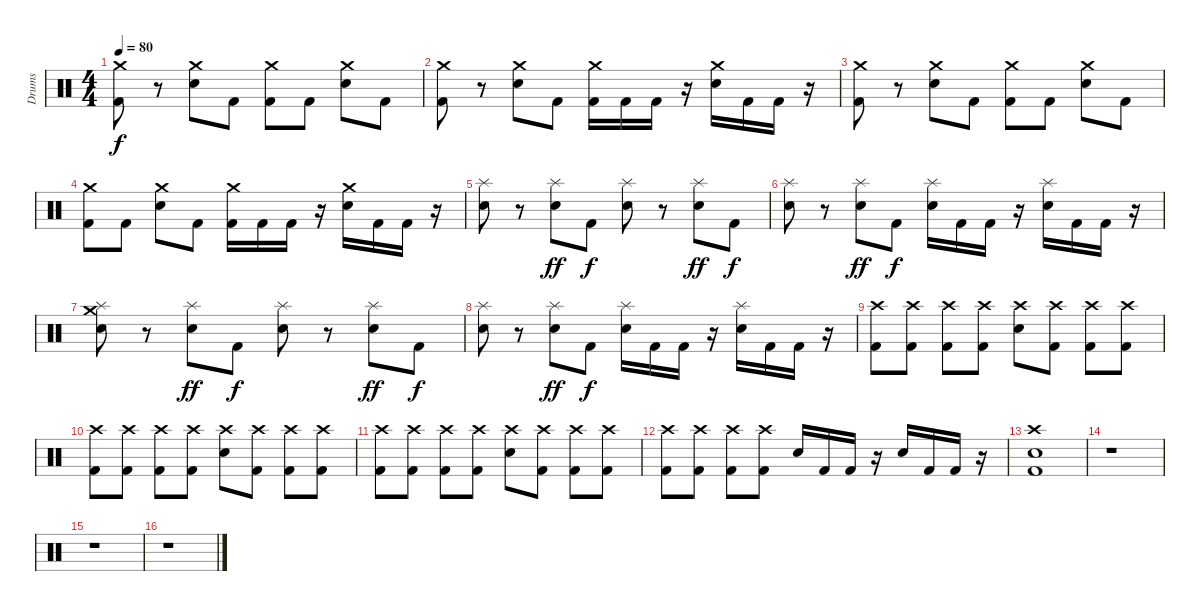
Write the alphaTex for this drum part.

\track ("Drums" "Drums") {instrument percussion}
\staff {score}
\articulation defaults
\ts (4 4)
\tempo 80
\clef neutral
\ks c
("Crash medium (hit)" "Kick (hit) 2").8{dy f} r.8 ("Crash medium (hit)" "Snare (hit) 2").8 "Kick (hit) 2".8 ("Crash medium (hit)" "Kick (hit) 2").8 "Kick (hit) 2".8 ("Crash medium (hit)" "Snare (hit) 2").8 "Kick (hit) 2".8 |
("Crash medium (hit)" "Kick (hit) 2").8 r.8 ("Crash medium (hit)" "Snare (hit) 2").8 "Kick (hit) 2".8 ("Crash medium (hit)" "Kick (hit) 2").16 "Kick (hit) 2".16 "Kick (hit) 2".16 r.16 ("Crash medium (hit)" "Snare (hit) 2").16 "Kick (hit) 2".16 "Kick (hit) 2".16 r.16 |
("Crash medium (hit)" "Kick (hit) 2").8 r.8 ("Crash medium (hit)" "Snare (hit) 2").8 "Kick (hit) 2".8 ("Crash medium (hit)" "Kick (hit) 2").8 "Kick (hit) 2".8 ("Crash medium (hit)" "Snare (hit) 2").8 "Kick (hit) 2".8 |
("Crash medium (hit)" "Kick (hit) 2").8 "Kick (hit) 2".8 ("Crash medium (hit)" "Snare (hit) 2").8 "Kick (hit) 2".8 ("Crash medium (hit)" "Kick (hit) 2").16 "Kick (hit) 2".16 "Kick (hit) 2".16 r.16 ("Crash medium (hit)" "Snare (hit) 2").16 "Kick (hit) 2".16 "Kick (hit) 2".16 r.16 |
("Splash (hit)" "Snare (hit) 2").8 r.8 ("Splash (hit)" "Snare (hit) 2").8{dy ff} "Kick (hit) 2".8{dy f} ("Splash (hit)" "Snare (hit) 2").8 r.8 ("Splash (hit)" "Snare (hit) 2").8{dy ff} "Kick (hit) 2".8{dy f} |
("Splash (hit)" "Snare (hit) 2").8 r.8 ("Splash (hit)" "Snare (hit) 2").8{dy ff} "Kick (hit) 2".8{dy f} ("Splash (hit)" "Snare (hit) 2").16 "Kick (hit) 2".16 "Kick (hit) 2".16 r.16 ("Splash (hit)" "Snare (hit) 2").16 "Kick (hit) 2".16 "Kick (hit) 2".16 r.16 |
("Crash medium (hit)" "Splash (hit)" "Snare (hit) 2").8 r.8 ("Splash (hit)" "Snare (hit) 2").8{dy ff} "Kick (hit) 2".8{dy f} ("Splash (hit)" "Snare (hit) 2").8 r.8 ("Splash (hit)" "Snare (hit) 2").8{dy ff} "Kick (hit) 2".8{dy f} |
("Splash (hit)" "Snare (hit) 2").8 r.8 ("Splash (hit)" "Snare (hit) 2").8{dy ff} "Kick (hit) 2".8{dy f} ("Splash (hit)" "Snare (hit) 2").16 "Kick (hit) 2".16 "Kick (hit) 2".16 r.16 ("Splash (hit)" "Snare (hit) 2").16 "Kick (hit) 2".16 "Kick (hit) 2".16 r.16 |
("Crash high (hit)" "Kick (hit) 2").8 ("Crash high (hit)" "Kick (hit) 2").8 ("Crash high (hit)" "Kick (hit) 2").8 ("Crash high (hit)" "Kick (hit) 2").8 ("Crash high (hit)" "Snare (hit) 2").8 ("Crash high (hit)" "Kick (hit) 2").8 ("Crash high (hit)" "Kick (hit) 2").8 ("Crash high (hit)" "Kick (hit) 2").8 |
("Crash high (hit)" "Kick (hit) 2").8 ("Crash high (hit)" "Kick (hit) 2").8 ("Crash high (hit)" "Kick (hit) 2").8 ("Crash high (hit)" "Kick (hit) 2").8 ("Crash high (hit)" "Snare (hit) 2").8 ("Crash high (hit)" "Kick (hit) 2").8 ("Crash high (hit)" "Kick (hit) 2").8 ("Crash high (hit)" "Kick (hit) 2").8 |
("Crash high (hit)" "Kick (hit) 2").8 ("Crash high (hit)" "Kick (hit) 2").8 ("Crash high (hit)" "Kick (hit) 2").8 ("Crash high (hit)" "Kick (hit) 2").8 ("Crash high (hit)" "Snare (hit) 2").8 ("Crash high (hit)" "Kick (hit) 2").8 ("Crash high (hit)" "Kick (hit) 2").8 ("Crash high (hit)" "Kick (hit) 2").8 |
("Crash high (hit)" "Kick (hit) 2").8 ("Crash high (hit)" "Kick (hit) 2").8 ("Crash high (hit)" "Kick (hit) 2").8 ("Crash high (hit)" "Kick (hit) 2").8 "Snare (hit) 2".16 "Kick (hit) 2".16 "Kick (hit) 2".16 r.16 "Snare (hit) 2".16 "Kick (hit) 2".16 "Kick (hit) 2".16 r.16 |
("Crash high (hit)" "Snare (hit) 2" "Kick (hit) 2").1 |
r.1 |
r.1 |
r.1
